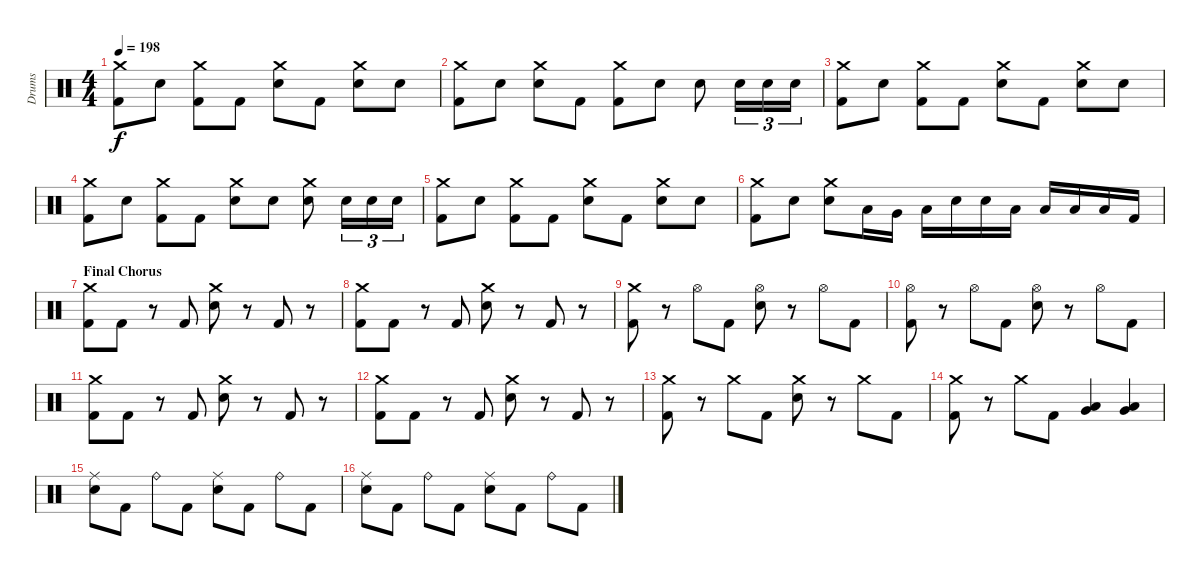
\track ("Drums" "Drums") {instrument percussion}
\staff {score}
\articulation defaults
\ts (4 4)
\tempo 198
\clef neutral
\ks c
("Crash medium (hit)" "Kick (hit) 2").8{dy f} "Electric Snare (hit)".8 ("Crash medium (hit)" "Kick (hit) 2").8 "Kick (hit) 2".8 ("Crash medium (hit)" "Electric Snare (hit)").8 "Kick (hit) 2".8 ("Crash medium (hit)" "Electric Snare (hit)").8 "Electric Snare (hit)".8 |
("Crash medium (hit)" "Kick (hit) 2").8 "Electric Snare (hit)".8 ("Crash medium (hit)" "Electric Snare (hit)").8 "Kick (hit) 2".8 ("Crash medium (hit)" "Kick (hit) 2").8 "Electric Snare (hit)".8 "Electric Snare (hit)".8 "Electric Snare (hit)".16{tu (3 2)} "Electric Snare (hit)".16{tu (3 2)} "Electric Snare (hit)".16{tu (3 2)} |
("Crash medium (hit)" "Kick (hit) 2").8 "Electric Snare (hit)".8 ("Crash medium (hit)" "Kick (hit) 2").8 "Kick (hit) 2".8 ("Crash medium (hit)" "Electric Snare (hit)").8 "Kick (hit) 2".8 ("Crash medium (hit)" "Electric Snare (hit)").8 "Electric Snare (hit)".8 |
("Crash medium (hit)" "Kick (hit) 2").8 "Electric Snare (hit)".8 ("Crash medium (hit)" "Kick (hit) 2").8 "Kick (hit) 2".8 ("Crash medium (hit)" "Electric Snare (hit)").8 "Electric Snare (hit)".8 ("Crash medium (hit)" "Electric Snare (hit)").8 "Electric Snare (hit)".16{tu (3 2)} "Electric Snare (hit)".16{tu (3 2)} "Electric Snare (hit)".16{tu (3 2)} |
("Crash medium (hit)" "Kick (hit) 2").8 "Electric Snare (hit)".8 ("Crash medium (hit)" "Kick (hit) 2").8 "Kick (hit) 2".8 ("Crash medium (hit)" "Electric Snare (hit)").8 "Kick (hit) 2".8 ("Crash medium (hit)" "Electric Snare (hit)").8 "Electric Snare (hit)".8 |
("Crash medium (hit)" "Kick (hit) 2").8 "Electric Snare (hit)".8 ("Crash medium (hit)" "Electric Snare (hit)").8 "Low Tom (hit)".16 "Very Low Tom (hit)".16 "Low Floor Tom (hit)".16 "Electric Snare (hit)".16 "Electric Snare (hit)".16 "Low Tom (hit)".16 "Low Tom (hit)".16 "Low Floor Tom (hit)".16 "Low Floor Tom (hit)".16 "Kick (hit) 2".16 |
\section ("" "Final Chorus")
("Crash medium (hit)" "Kick (hit) 2").8 "Kick (hit) 2".8 r.8 "Kick (hit) 2".8 ("Crash medium (hit)" "Electric Snare (hit)").8 r.8 "Kick (hit) 2".8 r.8 |
("Crash medium (hit)" "Kick (hit) 2").8 "Kick (hit) 2".8 r.8 "Kick (hit) 2".8 ("Crash medium (hit)" "Electric Snare (hit)").8 r.8 "Kick (hit) 2".8 r.8 |
("Crash medium (hit)" "Kick (hit) 2").8 r.8 "Hi-Hat (open)".8 "Kick (hit) 2".8 ("Hi-Hat (open)" "Electric Snare (hit)").8 r.8 "Hi-Hat (open)".8 "Kick (hit) 2".8 |
("Hi-Hat (open)" "Kick (hit) 2").8 r.8 "Hi-Hat (open)".8 "Kick (hit) 2".8 ("Hi-Hat (open)" "Electric Snare (hit)").8 r.8 "Hi-Hat (open)".8 "Kick (hit) 2".8 |
("Crash medium (hit)" "Kick (hit) 2").8 "Kick (hit) 2".8 r.8 "Kick (hit) 2".8 ("Crash medium (hit)" "Electric Snare (hit)").8 r.8 "Kick (hit) 2".8 r.8 |
("Crash medium (hit)" "Kick (hit) 2").8 "Kick (hit) 2".8 r.8 "Kick (hit) 2".8 ("Crash medium (hit)" "Electric Snare (hit)").8 r.8 "Kick (hit) 2".8 r.8 |
("Crash medium (hit)" "Kick (hit) 2").8 r.8 "Crash medium (hit)".8 "Kick (hit) 2".8 ("Crash medium (hit)" "Electric Snare (hit)").8 r.8 "Crash medium (hit)".8 "Kick (hit) 2".8 |
("Crash medium (hit)" "Kick (hit) 2").8 r.8 "Crash medium (hit)".8 "Kick (hit) 2".8 ("Low Tom (hit)" "Very Low Tom (hit)").4 ("Very Low Tom (hit)" "Low Floor Tom (hit)").4 |
("Ride (middle)" "Electric Snare (hit)").8 "Kick (hit) 2".8 "Ride (bell)".8 "Kick (hit) 2".8 ("Ride (middle)" "Electric Snare (hit)").8 "Kick (hit) 2".8 "Ride (bell)".8 "Kick (hit) 2".8 |
("Ride (middle)" "Electric Snare (hit)").8 "Kick (hit) 2".8 "Ride (bell)".8 "Kick (hit) 2".8 ("Ride (middle)" "Electric Snare (hit)").8 "Kick (hit) 2".8 "Ride (bell)".8 "Kick (hit) 2".8
